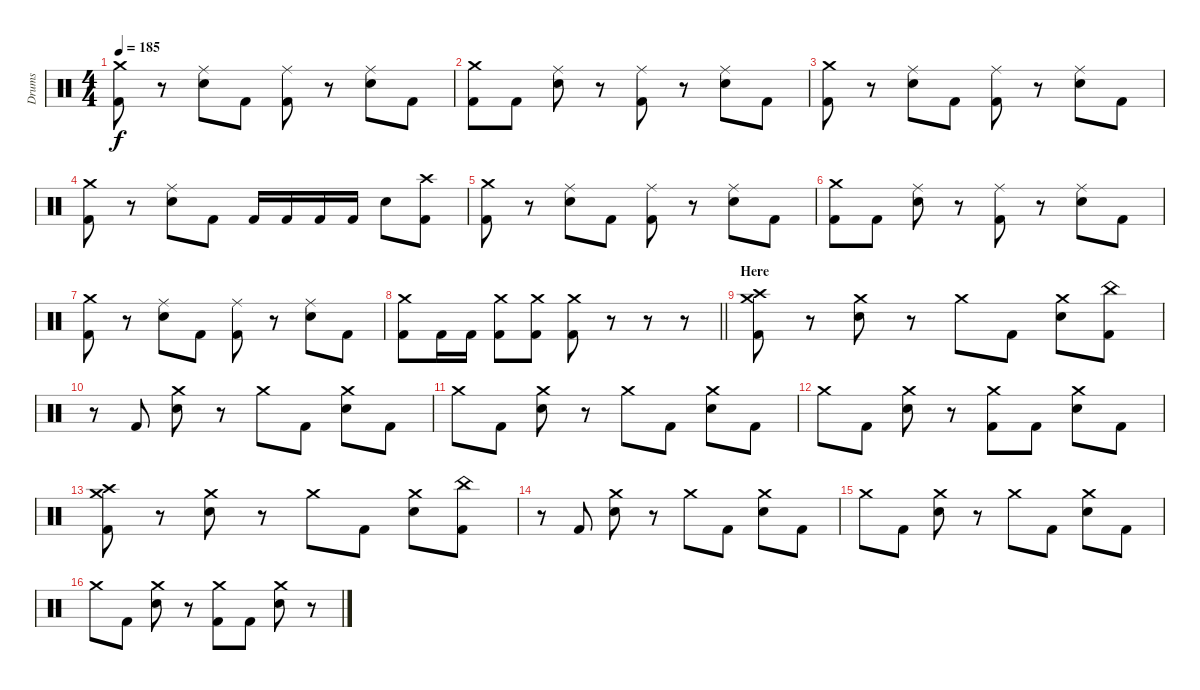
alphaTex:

\track ("Drums" "Drums") {solo instrument percussion}
\staff {score}
\articulation defaults
\ts (4 4)
\tempo 185
\clef neutral
\ks c
("Crash medium (hit)" "Kick (hit) 2").8{dy f} r.8 ("Snare (hit) 2" "Ride (middle)").8 "Kick (hit) 2".8 ("Ride (middle)" "Kick (hit) 2").8 r.8 ("Snare (hit) 2" "Ride (middle)").8 "Kick (hit) 2".8 |
("Crash medium (hit)" "Kick (hit) 2").8 "Kick (hit) 2".8 ("Snare (hit) 2" "Ride (middle)").8 r.8 ("Ride (middle)" "Kick (hit) 2").8 r.8 ("Snare (hit) 2" "Ride (middle)").8 "Kick (hit) 2".8 |
("Crash medium (hit)" "Kick (hit) 2").8 r.8 ("Snare (hit) 2" "Ride (middle)").8 "Kick (hit) 2".8 ("Ride (middle)" "Kick (hit) 2").8 r.8 ("Snare (hit) 2" "Ride (middle)").8 "Kick (hit) 2".8 |
("Crash medium (hit)" "Kick (hit) 2").8 r.8 ("Snare (hit) 2" "Ride (middle)").8 "Kick (hit) 2".8 "Kick (hit) 2".16 "Kick (hit) 2".16 "Kick (hit) 2".16 "Kick (hit) 2".16 "Snare (hit) 2".8 ("Crash high (hit)" "Kick (hit) 2").8 |
("Crash medium (hit)" "Kick (hit) 2").8 r.8 ("Snare (hit) 2" "Ride (middle)").8 "Kick (hit) 2".8 ("Ride (middle)" "Kick (hit) 2").8 r.8 ("Snare (hit) 2" "Ride (middle)").8 "Kick (hit) 2".8 |
("Crash medium (hit)" "Kick (hit) 2").8 "Kick (hit) 2".8 ("Snare (hit) 2" "Ride (middle)").8 r.8 ("Ride (middle)" "Kick (hit) 2").8 r.8 ("Snare (hit) 2" "Ride (middle)").8 "Kick (hit) 2".8 |
("Crash medium (hit)" "Kick (hit) 2").8 r.8 ("Snare (hit) 2" "Ride (middle)").8 "Kick (hit) 2".8 ("Ride (middle)" "Kick (hit) 2").8 r.8 ("Snare (hit) 2" "Ride (middle)").8 "Kick (hit) 2".8 |
\barLineRight lightlight
("Crash medium (hit)" "Kick (hit) 2").8 "Kick (hit) 2".16 "Kick (hit) 2".16 ("Crash medium (hit)" "Kick (hit) 2").8 ("Crash medium (hit)" "Kick (hit) 2").8 ("Crash medium (hit)" "Kick (hit) 2").8 r.8 r.8 r.8 |
\section ("" "Here")
("Crash medium (hit)" "Crash high (hit)" "Kick (hit) 2").8 r.8 ("Crash medium (hit)" "Snare (hit) 2").8 r.8 "Crash medium (hit)".8 "Kick (hit) 2".8 ("Crash medium (hit)" "Snare (hit) 2").8 ("China (hit)" "Kick (hit) 2").8 |
r.8 "Kick (hit) 2".8 ("Crash medium (hit)" "Snare (hit) 2").8 r.8 "Crash medium (hit)".8 "Kick (hit) 2".8 ("Crash medium (hit)" "Snare (hit) 2").8 "Kick (hit) 2".8 |
"Crash medium (hit)".8 "Kick (hit) 2".8 ("Crash medium (hit)" "Snare (hit) 2").8 r.8 "Crash medium (hit)".8 "Kick (hit) 2".8 ("Crash medium (hit)" "Snare (hit) 2").8 "Kick (hit) 2".8 |
"Crash medium (hit)".8 "Kick (hit) 2".8 ("Crash medium (hit)" "Snare (hit) 2").8 r.8 ("Crash medium (hit)" "Kick (hit) 2").8 "Kick (hit) 2".8 ("Crash medium (hit)" "Snare (hit) 2").8 "Kick (hit) 2".8 |
("Crash medium (hit)" "Crash high (hit)" "Kick (hit) 2").8 r.8 ("Crash medium (hit)" "Snare (hit) 2").8 r.8 "Crash medium (hit)".8 "Kick (hit) 2".8 ("Crash medium (hit)" "Snare (hit) 2").8 ("China (hit)" "Kick (hit) 2").8 |
r.8 "Kick (hit) 2".8 ("Crash medium (hit)" "Snare (hit) 2").8 r.8 "Crash medium (hit)".8 "Kick (hit) 2".8 ("Crash medium (hit)" "Snare (hit) 2").8 "Kick (hit) 2".8 |
"Crash medium (hit)".8 "Kick (hit) 2".8 ("Crash medium (hit)" "Snare (hit) 2").8 r.8 "Crash medium (hit)".8 "Kick (hit) 2".8 ("Crash medium (hit)" "Snare (hit) 2").8 "Kick (hit) 2".8 |
"Crash medium (hit)".8 "Kick (hit) 2".8 ("Crash medium (hit)" "Snare (hit) 2").8 r.8 ("Crash medium (hit)" "Kick (hit) 2").8 "Kick (hit) 2".8 ("Crash medium (hit)" "Snare (hit) 2").8 r.8
